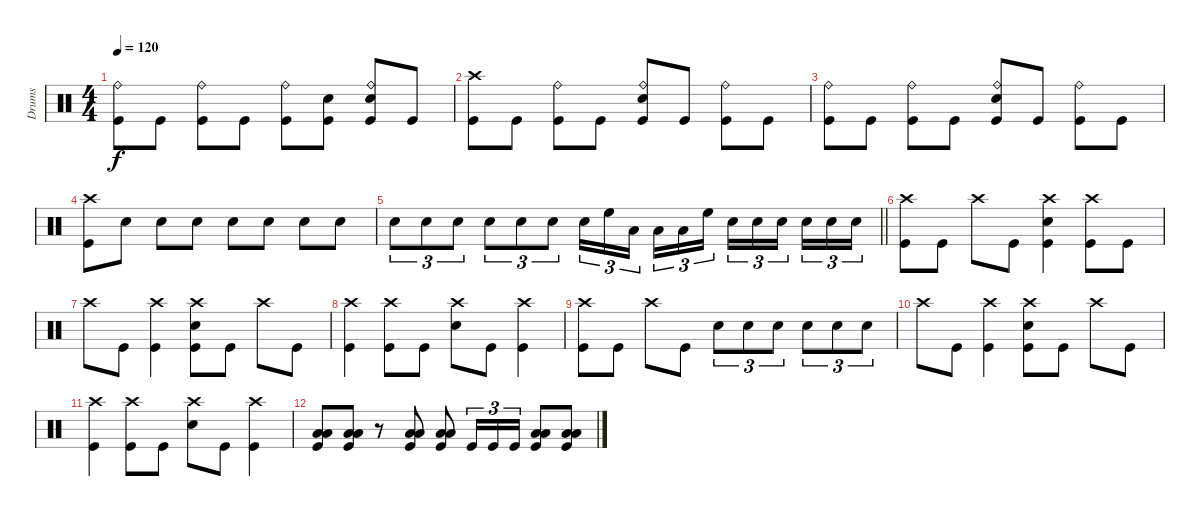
\track ("Drums" "Drums") {instrument percussion}
\staff {score}
\articulation defaults
\ts (4 4)
\tempo 120
\clef neutral
\ks c
("Kick (hit)" "Ride (bell)").8{dy f} "Kick (hit)".8 ("Kick (hit)" "Ride (bell)").8 "Kick (hit)".8 ("Kick (hit)" "Ride (bell)").8 ("Kick (hit)" "Snare (hit) 2").8 ("Kick (hit)" "Snare (hit) 2" "Ride (bell)").8 "Kick (hit)".8 |
("Crash high (hit)" "Kick (hit)").8 "Kick (hit)".8 ("Ride (bell)" "Kick (hit)").8 "Kick (hit)".8 ("Snare (hit) 2" "Ride (bell)" "Kick (hit)").8 "Kick (hit)".8 ("Ride (bell)" "Kick (hit)").8 "Kick (hit)".8 |
("Kick (hit)" "Ride (bell)").8 "Kick (hit)".8 ("Kick (hit)" "Ride (bell)").8 "Kick (hit)".8 ("Kick (hit)" "Snare (hit) 2" "Ride (bell)").8 "Kick (hit)".8 ("Kick (hit)" "Ride (bell)").8 "Kick (hit)".8 |
("Kick (hit)" "Crash high (hit)").8 "Snare (hit) 2".8 "Snare (hit) 2".8 "Snare (hit) 2".8 "Snare (hit) 2".8 "Snare (hit) 2".8 "Snare (hit) 2".8 "Snare (hit) 2".8 |
\barLineRight lightlight "Snare (hit) 2".8{tu (3 2)} "Snare (hit) 2".8{tu (3 2)} "Snare (hit) 2".8{tu (3 2)} "Snare (hit) 2".8{tu (3 2)} "Snare (hit) 2".8{tu (3 2)} "Snare (hit) 2".8{tu (3 2)} "Snare (hit) 2".16{tu (3 2)} "High Floor Tom (hit)".16{tu (3 2)} "Low Tom (hit)".16{tu (3 2) beam splitsecondary} "Low Floor Tom (hit)".16{tu (3 2)} "Low Tom (hit)".16{tu (3 2)} "High Floor Tom (hit)".16{tu (3 2)} "Snare (hit) 2".16{tu (3 2)} "Snare (hit) 2".16{tu (3 2)} "Snare (hit) 2".16{tu (3 2) beam splitsecondary} "Snare (hit) 2".16{tu (3 2)} "Snare (hit) 2".16{tu (3 2)} "Snare (hit) 2".16{tu (3 2)}
|
("Crash high (hit)" "Kick (hit)").8 "Kick (hit)".8 "Crash high (hit)".8 "Kick (hit)".8 ("Kick (hit)" "Snare (hit) 2" "Crash high (hit)").4 ("Crash high (hit)" "Kick (hit)").8 "Kick (hit)".8 |
"Crash high (hit)".8 "Kick (hit)".8 ("Kick (hit)" "Crash high (hit)").4 ("Kick (hit)" "Snare (hit) 2" "Crash high (hit)").8 "Kick (hit)".8 "Crash high (hit)".8 "Kick (hit)".8 |
("Kick (hit)" "Crash high (hit)").4 ("Kick (hit)" "Crash high (hit)").8 "Kick (hit)".8 ("Snare (hit) 2" "Crash high (hit)").8 "Kick (hit)".8 ("Kick (hit)" "Crash high (hit)").4 |
("Kick (hit)" "Crash high (hit)").8 "Kick (hit)".8 "Crash high (hit)".8 "Kick (hit)".8 "Snare (hit) 2".8{tu (3 2)} "Snare (hit) 2".8{tu (3 2)} "Snare (hit) 2".8{tu (3 2)} "Snare (hit) 2".8{tu (3 2)} "Snare (hit) 2".8{tu (3 2)} "Snare (hit) 2".8{tu (3 2)} |
"Crash high (hit)".8 "Kick (hit)".8 ("Crash high (hit)" "Kick (hit)").4 ("Snare (hit) 2" "Crash high (hit)" "Kick (hit)").8 "Kick (hit)".8 "Crash high (hit)".8 "Kick (hit)".8 |
("Crash high (hit)" "Kick (hit)").4 ("Crash high (hit)" "Kick (hit)").8 "Kick (hit)".8 ("Snare (hit) 2" "Crash high (hit)").8 "Kick (hit)".8 ("Crash high (hit)" "Kick (hit)").4 |
("Low Floor Tom (hit)" "Low Tom (hit)" "Kick (hit)").8 ("Low Floor Tom (hit)" "Low Tom (hit)" "Kick (hit)").8 r.8 ("Low Floor Tom (hit)" "Low Tom (hit)" "Kick (hit)").8 ("Low Floor Tom (hit)" "Low Tom (hit)" "Kick (hit)").8 "Kick (hit)".16{tu (3 2)} "Kick (hit)".16{tu (3 2)} "Kick (hit)".16{tu (3 2)} ("Low Floor Tom (hit)" "Low Tom (hit)" "Kick (hit)").8 ("Low Floor Tom (hit)" "Low Tom (hit)" "Kick (hit)").8
